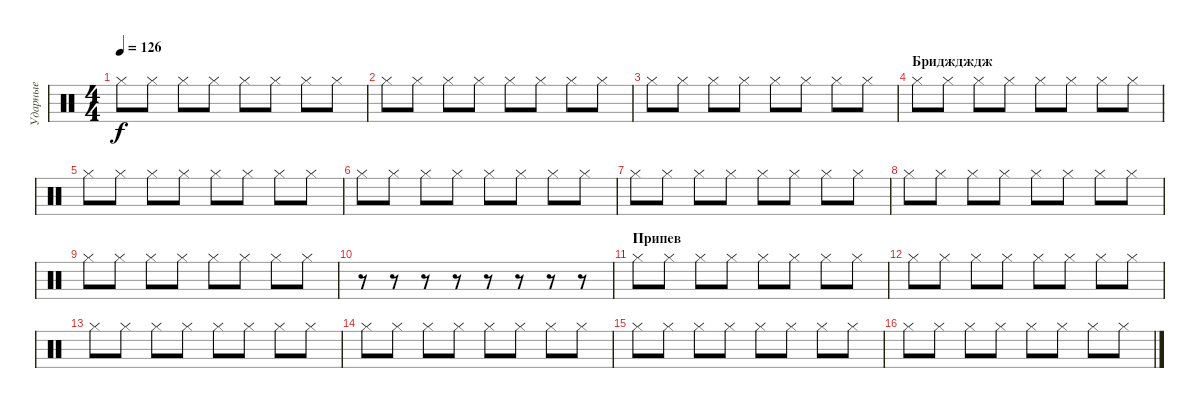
\track ("Ударные" "Ударные") {instrument percussion}
\staff {score}
\articulation defaults
\ts (4 4)
\tempo 126
\clef neutral
\ks c "Hi-Hat (closed)".8{dy f} "Hi-Hat (closed)".8 "Hi-Hat (closed)".8 "Hi-Hat (closed)".8 "Hi-Hat (closed)".8 "Hi-Hat (closed)".8 "Hi-Hat (closed)".8 "Hi-Hat (closed)".8
|
"Hi-Hat (closed)".8 "Hi-Hat (closed)".8 "Hi-Hat (closed)".8 "Hi-Hat (closed)".8 "Hi-Hat (closed)".8 "Hi-Hat (closed)".8 "Hi-Hat (closed)".8 "Hi-Hat (closed)".8 |
"Hi-Hat (closed)".8 "Hi-Hat (closed)".8 "Hi-Hat (closed)".8 "Hi-Hat (closed)".8 "Hi-Hat (closed)".8 "Hi-Hat (closed)".8 "Hi-Hat (closed)".8 "Hi-Hat (closed)".8 |
\section ("" "Бридждждж")
"Hi-Hat (closed)".8 "Hi-Hat (closed)".8 "Hi-Hat (closed)".8 "Hi-Hat (closed)".8 "Hi-Hat (closed)".8 "Hi-Hat (closed)".8 "Hi-Hat (closed)".8 "Hi-Hat (closed)".8 |
"Hi-Hat (closed)".8 "Hi-Hat (closed)".8 "Hi-Hat (closed)".8 "Hi-Hat (closed)".8 "Hi-Hat (closed)".8 "Hi-Hat (closed)".8 "Hi-Hat (closed)".8 "Hi-Hat (closed)".8 |
"Hi-Hat (closed)".8 "Hi-Hat (closed)".8 "Hi-Hat (closed)".8 "Hi-Hat (closed)".8 "Hi-Hat (closed)".8 "Hi-Hat (closed)".8 "Hi-Hat (closed)".8 "Hi-Hat (closed)".8 |
"Hi-Hat (closed)".8 "Hi-Hat (closed)".8 "Hi-Hat (closed)".8 "Hi-Hat (closed)".8 "Hi-Hat (closed)".8 "Hi-Hat (closed)".8 "Hi-Hat (closed)".8 "Hi-Hat (closed)".8 |
"Hi-Hat (closed)".8 "Hi-Hat (closed)".8 "Hi-Hat (closed)".8 "Hi-Hat (closed)".8 "Hi-Hat (closed)".8 "Hi-Hat (closed)".8 "Hi-Hat (closed)".8 "Hi-Hat (closed)".8 |
"Hi-Hat (closed)".8 "Hi-Hat (closed)".8 "Hi-Hat (closed)".8 "Hi-Hat (closed)".8 "Hi-Hat (closed)".8 "Hi-Hat (closed)".8 "Hi-Hat (closed)".8 "Hi-Hat (closed)".8 |
r.8 r.8 r.8 r.8 r.8 r.8 r.8 r.8 |
\section ("" "Припев")
"Hi-Hat (closed)".8 "Hi-Hat (closed)".8 "Hi-Hat (closed)".8 "Hi-Hat (closed)".8 "Hi-Hat (closed)".8 "Hi-Hat (closed)".8 "Hi-Hat (closed)".8 "Hi-Hat (closed)".8 |
"Hi-Hat (closed)".8 "Hi-Hat (closed)".8 "Hi-Hat (closed)".8 "Hi-Hat (closed)".8 "Hi-Hat (closed)".8 "Hi-Hat (closed)".8 "Hi-Hat (closed)".8 "Hi-Hat (closed)".8 |
"Hi-Hat (closed)".8 "Hi-Hat (closed)".8 "Hi-Hat (closed)".8 "Hi-Hat (closed)".8 "Hi-Hat (closed)".8 "Hi-Hat (closed)".8 "Hi-Hat (closed)".8 "Hi-Hat (closed)".8 |
"Hi-Hat (closed)".8 "Hi-Hat (closed)".8 "Hi-Hat (closed)".8 "Hi-Hat (closed)".8 "Hi-Hat (closed)".8 "Hi-Hat (closed)".8 "Hi-Hat (closed)".8 "Hi-Hat (closed)".8 |
"Hi-Hat (closed)".8 "Hi-Hat (closed)".8 "Hi-Hat (closed)".8 "Hi-Hat (closed)".8 "Hi-Hat (closed)".8 "Hi-Hat (closed)".8 "Hi-Hat (closed)".8 "Hi-Hat (closed)".8 |
"Hi-Hat (closed)".8 "Hi-Hat (closed)".8 "Hi-Hat (closed)".8 "Hi-Hat (closed)".8 "Hi-Hat (closed)".8 "Hi-Hat (closed)".8 "Hi-Hat (closed)".8 "Hi-Hat (closed)".8
